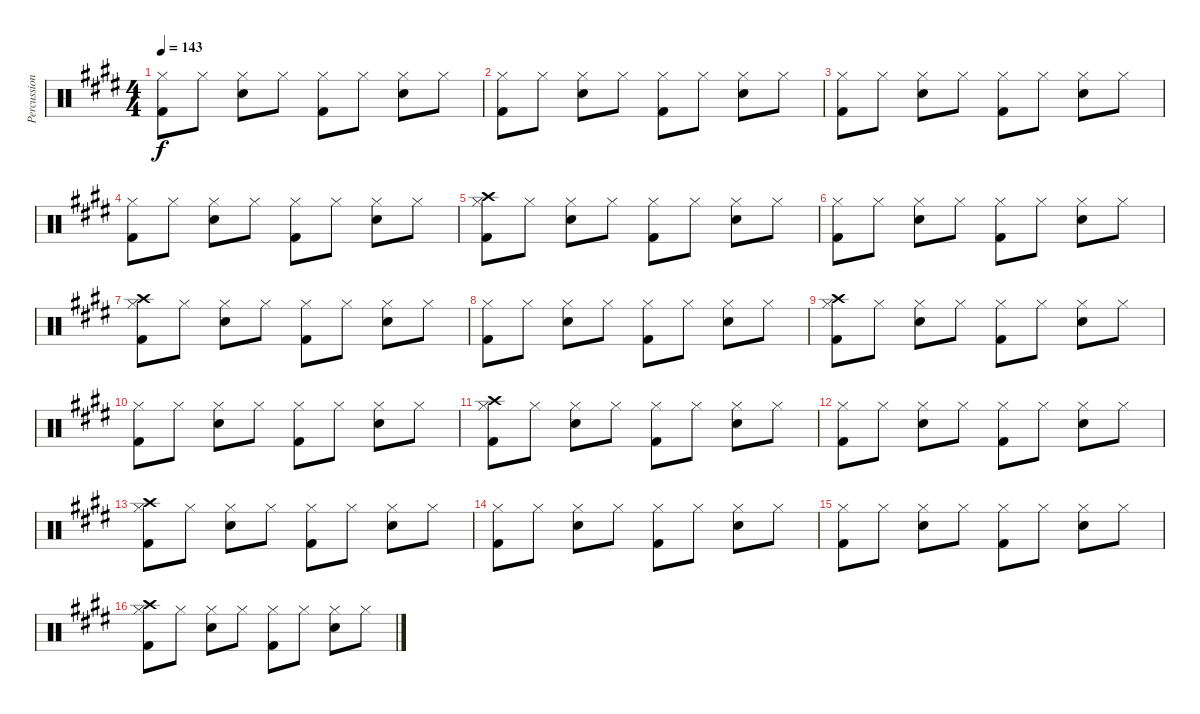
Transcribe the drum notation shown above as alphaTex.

\track ("Percussion" "Percussion") {instrument percussion}
\staff {score}
\articulation defaults
\ts (4 4)
\tempo 143
\clef neutral
\ks e
("Hi-Hat (closed)" "Kick (hit) 2").8{dy f} "Hi-Hat (closed)".8 ("Hi-Hat (closed)" "Snare (hit) 2").8 "Hi-Hat (closed)".8 ("Hi-Hat (closed)" "Kick (hit) 2").8 "Hi-Hat (closed)".8 ("Hi-Hat (closed)" "Snare (hit) 2").8 "Hi-Hat (closed)".8 |
("Hi-Hat (closed)" "Kick (hit) 2").8 "Hi-Hat (closed)".8 ("Hi-Hat (closed)" "Snare (hit) 2").8 "Hi-Hat (closed)".8 ("Hi-Hat (closed)" "Kick (hit) 2").8 "Hi-Hat (closed)".8 ("Hi-Hat (closed)" "Snare (hit) 2").8 "Hi-Hat (closed)".8 |
("Hi-Hat (closed)" "Kick (hit) 2").8 "Hi-Hat (closed)".8 ("Hi-Hat (closed)" "Snare (hit) 2").8 "Hi-Hat (closed)".8 ("Hi-Hat (closed)" "Kick (hit) 2").8 "Hi-Hat (closed)".8 ("Hi-Hat (closed)" "Snare (hit) 2").8 "Hi-Hat (closed)".8 |
("Hi-Hat (closed)" "Kick (hit) 2").8 "Hi-Hat (closed)".8 ("Hi-Hat (closed)" "Snare (hit) 2").8 "Hi-Hat (closed)".8 ("Hi-Hat (closed)" "Kick (hit) 2").8 "Hi-Hat (closed)".8 ("Hi-Hat (closed)" "Snare (hit) 2").8 "Hi-Hat (closed)".8 |
("Hi-Hat (closed)" "Kick (hit) 2" "Crash high (hit)").8 "Hi-Hat (closed)".8 ("Hi-Hat (closed)" "Snare (hit) 2").8 "Hi-Hat (closed)".8 ("Hi-Hat (closed)" "Kick (hit) 2").8 "Hi-Hat (closed)".8 ("Hi-Hat (closed)" "Snare (hit) 2").8 "Hi-Hat (closed)".8 |
("Hi-Hat (closed)" "Kick (hit) 2").8 "Hi-Hat (closed)".8 ("Hi-Hat (closed)" "Snare (hit) 2").8 "Hi-Hat (closed)".8 ("Hi-Hat (closed)" "Kick (hit) 2").8 "Hi-Hat (closed)".8 ("Hi-Hat (closed)" "Snare (hit) 2").8 "Hi-Hat (closed)".8 |
("Hi-Hat (closed)" "Kick (hit) 2" "Crash high (hit)").8 "Hi-Hat (closed)".8 ("Hi-Hat (closed)" "Snare (hit) 2").8 "Hi-Hat (closed)".8 ("Hi-Hat (closed)" "Kick (hit) 2").8 "Hi-Hat (closed)".8 ("Hi-Hat (closed)" "Snare (hit) 2").8 "Hi-Hat (closed)".8 |
("Hi-Hat (closed)" "Kick (hit) 2").8 "Hi-Hat (closed)".8 ("Hi-Hat (closed)" "Snare (hit) 2").8 "Hi-Hat (closed)".8 ("Hi-Hat (closed)" "Kick (hit) 2").8 "Hi-Hat (closed)".8 ("Hi-Hat (closed)" "Snare (hit) 2").8 "Hi-Hat (closed)".8 |
("Hi-Hat (closed)" "Kick (hit) 2" "Crash high (hit)").8 "Hi-Hat (closed)".8 ("Hi-Hat (closed)" "Snare (hit) 2").8 "Hi-Hat (closed)".8 ("Hi-Hat (closed)" "Kick (hit) 2").8 "Hi-Hat (closed)".8 ("Hi-Hat (closed)" "Snare (hit) 2").8 "Hi-Hat (closed)".8 |
("Hi-Hat (closed)" "Kick (hit) 2").8 "Hi-Hat (closed)".8 ("Hi-Hat (closed)" "Snare (hit) 2").8 "Hi-Hat (closed)".8 ("Hi-Hat (closed)" "Kick (hit) 2").8 "Hi-Hat (closed)".8 ("Hi-Hat (closed)" "Snare (hit) 2").8 "Hi-Hat (closed)".8 |
("Hi-Hat (closed)" "Kick (hit) 2" "Crash high (hit)").8 "Hi-Hat (closed)".8 ("Hi-Hat (closed)" "Snare (hit) 2").8 "Hi-Hat (closed)".8 ("Hi-Hat (closed)" "Kick (hit) 2").8 "Hi-Hat (closed)".8 ("Hi-Hat (closed)" "Snare (hit) 2").8 "Hi-Hat (closed)".8 |
("Hi-Hat (closed)" "Kick (hit) 2").8 "Hi-Hat (closed)".8 ("Hi-Hat (closed)" "Snare (hit) 2").8 "Hi-Hat (closed)".8 ("Hi-Hat (closed)" "Kick (hit) 2").8 "Hi-Hat (closed)".8 ("Hi-Hat (closed)" "Snare (hit) 2").8 "Hi-Hat (closed)".8 |
("Hi-Hat (closed)" "Kick (hit) 2" "Crash high (hit)").8 "Hi-Hat (closed)".8 ("Hi-Hat (closed)" "Snare (hit) 2").8 "Hi-Hat (closed)".8 ("Hi-Hat (closed)" "Kick (hit) 2").8 "Hi-Hat (closed)".8 ("Hi-Hat (closed)" "Snare (hit) 2").8 "Hi-Hat (closed)".8 |
("Hi-Hat (closed)" "Kick (hit) 2").8 "Hi-Hat (closed)".8 ("Hi-Hat (closed)" "Snare (hit) 2").8 "Hi-Hat (closed)".8 ("Hi-Hat (closed)" "Kick (hit) 2").8 "Hi-Hat (closed)".8 ("Hi-Hat (closed)" "Snare (hit) 2").8 "Hi-Hat (closed)".8 |
("Hi-Hat (closed)" "Kick (hit) 2").8 "Hi-Hat (closed)".8 ("Hi-Hat (closed)" "Snare (hit) 2").8 "Hi-Hat (closed)".8 ("Hi-Hat (closed)" "Kick (hit) 2").8 "Hi-Hat (closed)".8 ("Hi-Hat (closed)" "Snare (hit) 2").8 "Hi-Hat (closed)".8 |
("Hi-Hat (closed)" "Kick (hit) 2" "Crash high (hit)").8 "Hi-Hat (closed)".8 ("Hi-Hat (closed)" "Snare (hit) 2").8 "Hi-Hat (closed)".8 ("Hi-Hat (closed)" "Kick (hit) 2").8 "Hi-Hat (closed)".8 ("Hi-Hat (closed)" "Snare (hit) 2").8 "Hi-Hat (closed)".8
